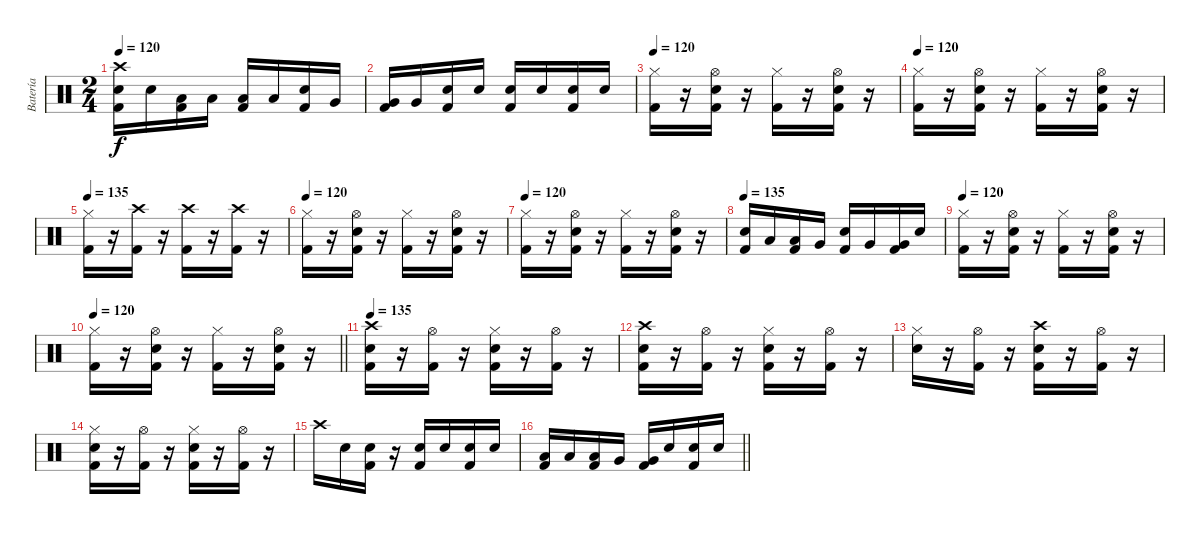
\track ("Batería   (Jony)" "Batería   ") {instrument percussion}
\staff {score}
\articulation defaults
\ts (2 4)
\tempo 120
\clef neutral
\ks c
("Crash high (hit)" "Electric Snare (hit)" "Kick (hit) 2").16{dy f} "Electric Snare (hit)".16 ("Low Tom (hit)" "Kick (hit) 2").16 "Low Tom (hit)".16 ("Low Tom (hit)" "Kick (hit) 2").16 "Low Tom (hit)".16 ("Electric Snare (hit)" "Kick (hit) 2").16 "Very Low Tom (hit)".16 |
("Very Low Tom (hit)" "Kick (hit) 2").16 "Very Low Tom (hit)".16 ("Electric Snare (hit)" "Kick (hit) 2").16 "Electric Snare (hit)".16 ("Electric Snare (hit)" "Kick (hit) 2").16 "Electric Snare (hit)".16 ("Electric Snare (hit)" "Kick (hit) 2").16 "Electric Snare (hit)".16 |
\tempo 120
("Hi-Hat (closed)" "Kick (hit) 2").16 r.16 ("Hi-Hat (open)" "Electric Snare (hit)" "Kick (hit) 2").16 r.16 ("Hi-Hat (closed)" "Kick (hit) 2").16 r.16 ("Hi-Hat (open)" "Electric Snare (hit)" "Kick (hit) 2").16 r.16 |
\tempo 120
("Hi-Hat (closed)" "Kick (hit) 2").16 r.16 ("Hi-Hat (open)" "Electric Snare (hit)" "Kick (hit) 2").16 r.16 ("Hi-Hat (closed)" "Kick (hit) 2").16 r.16 ("Hi-Hat (open)" "Electric Snare (hit)" "Kick (hit) 2").16 r.16 |
\tempo 135
("Hi-Hat (closed)" "Kick (hit) 2").16 r.16 ("Crash high (hit)" "Kick (hit) 2").16 r.16 ("Crash high (hit)" "Kick (hit) 2").16 r.16 ("Crash high (hit)" "Kick (hit) 2").16 r.16 |
\tempo 120
("Hi-Hat (closed)" "Kick (hit) 2").16 r.16 ("Hi-Hat (open)" "Electric Snare (hit)" "Kick (hit) 2").16 r.16 ("Hi-Hat (closed)" "Kick (hit) 2").16 r.16 ("Hi-Hat (open)" "Electric Snare (hit)" "Kick (hit) 2").16 r.16 |
\tempo 120
("Hi-Hat (closed)" "Kick (hit) 2").16 r.16 ("Hi-Hat (open)" "Electric Snare (hit)" "Kick (hit) 2").16 r.16 ("Hi-Hat (closed)" "Kick (hit) 2").16 r.16 ("Hi-Hat (open)" "Electric Snare (hit)" "Kick (hit) 2").16 r.16 |
\tempo 135
("Electric Snare (hit)" "Kick (hit) 2").16 "Low Tom (hit)".16 ("Low Tom (hit)" "Kick (hit) 2").16 "Very Low Tom (hit)".16 ("Electric Snare (hit)" "Kick (hit) 2").16 "Very Low Tom (hit)".16 ("Very Low Tom (hit)" "Kick (hit) 2").16 "Electric Snare (hit)".16 |
\tempo 120
("Hi-Hat (closed)" "Kick (hit) 2").16 r.16 ("Hi-Hat (open)" "Electric Snare (hit)" "Kick (hit) 2").16 r.16 ("Hi-Hat (closed)" "Kick (hit) 2").16 r.16 ("Hi-Hat (open)" "Electric Snare (hit)" "Kick (hit) 2").16 r.16 |
\tempo 120
\barLineRight lightlight
("Hi-Hat (closed)" "Kick (hit) 2").16 r.16 ("Hi-Hat (open)" "Electric Snare (hit)" "Kick (hit) 2").16 r.16 ("Hi-Hat (closed)" "Kick (hit) 2").16 r.16 ("Hi-Hat (open)" "Electric Snare (hit)" "Kick (hit) 2").16 r.16 |
\tempo 135
("Crash high (hit)" "Electric Snare (hit)" "Kick (hit) 2").16 r.16 ("Hi-Hat (open)" "Kick (hit) 2").16 r.16 ("Hi-Hat (closed)" "Electric Snare (hit)" "Kick (hit) 2").16 r.16 ("Hi-Hat (open)" "Kick (hit) 2").16 r.16 |
("Crash high (hit)" "Electric Snare (hit)" "Kick (hit) 2").16 r.16 ("Hi-Hat (open)" "Kick (hit) 2").16 r.16 ("Hi-Hat (closed)" "Electric Snare (hit)" "Kick (hit) 2").16 r.16 ("Hi-Hat (open)" "Kick (hit) 2").16 r.16 |
("Hi-Hat (closed)" "Electric Snare (hit)").16 r.16 ("Hi-Hat (open)" "Kick (hit) 2").16 r.16 ("Crash high (hit)" "Electric Snare (hit)" "Kick (hit) 2").16 r.16 ("Hi-Hat (open)" "Kick (hit) 2").16 r.16 |
("Hi-Hat (closed)" "Electric Snare (hit)" "Kick (hit) 2").16 r.16 ("Hi-Hat (open)" "Kick (hit) 2").16 r.16 ("Hi-Hat (closed)" "Electric Snare (hit)" "Kick (hit) 2").16 r.16 ("Hi-Hat (open)" "Kick (hit) 2").16 r.16 |
"Crash high (hit)".16 "Electric Snare (hit)".16 ("Electric Snare (hit)" "Kick (hit) 2").16 r.16 ("Electric Snare (hit)" "Kick (hit) 2").16 "Electric Snare (hit)".16 ("Electric Snare (hit)" "Kick (hit) 2").16 "Electric Snare (hit)".16 |
\barLineRight lightlight
("Low Tom (hit)" "Kick (hit) 2").16 "Low Tom (hit)".16 ("Low Tom (hit)" "Kick (hit) 2").16 "Very Low Tom (hit)".16 ("Very Low Tom (hit)" "Kick (hit) 2").16 "Electric Snare (hit)".16 ("Electric Snare (hit)" "Kick (hit) 2").16 "Electric Snare (hit)".16
